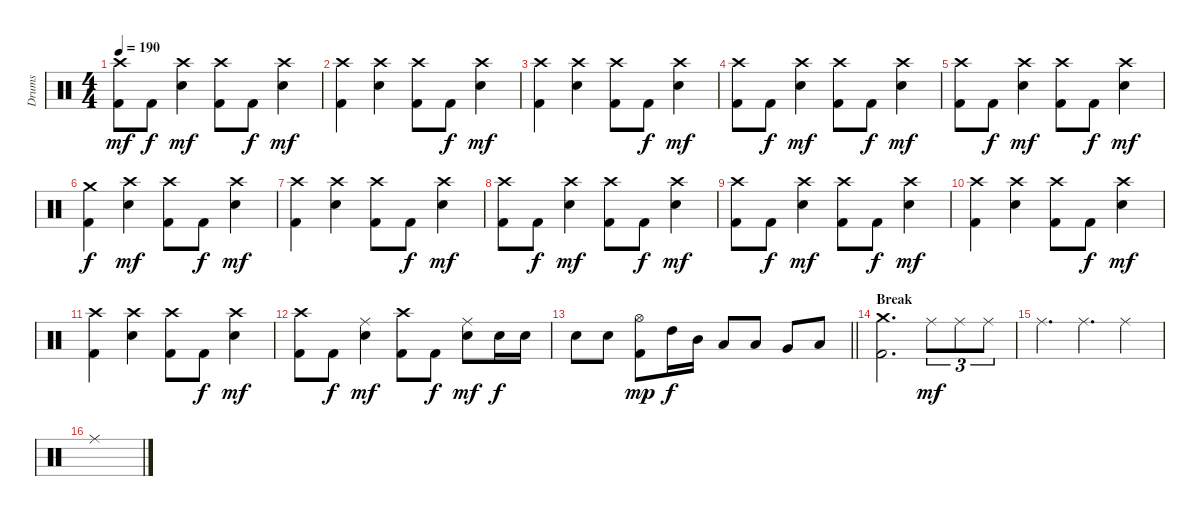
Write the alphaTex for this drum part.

\track ("Drums" "Drums") {instrument percussion}
\staff {score}
\articulation defaults
\ts (4 4)
\tempo 190
\clef neutral
\ks c
("Crash high (hit)" "Kick (hit) 2").8{dy mf} "Kick (hit) 2".8{dy f} ("Crash high (hit)" "Snare (hit) 2").4{dy mf} ("Crash high (hit)" "Kick (hit) 2").8 "Kick (hit) 2".8{dy f} ("Crash high (hit)" "Snare (hit) 2").4{dy mf} |
("Crash high (hit)" "Kick (hit) 2").4 ("Crash high (hit)" "Snare (hit) 2").4 ("Crash high (hit)" "Kick (hit) 2").8 "Kick (hit) 2".8{dy f} ("Crash high (hit)" "Snare (hit) 2").4{dy mf} |
("Crash high (hit)" "Kick (hit) 2").4 ("Crash high (hit)" "Snare (hit) 2").4 ("Crash high (hit)" "Kick (hit) 2").8 "Kick (hit) 2".8{dy f} ("Crash high (hit)" "Snare (hit) 2").4{dy mf} |
("Crash high (hit)" "Kick (hit) 2").8 "Kick (hit) 2".8{dy f} ("Crash high (hit)" "Snare (hit) 2").4{dy mf} ("Crash high (hit)" "Kick (hit) 2").8 "Kick (hit) 2".8{dy f} ("Crash high (hit)" "Snare (hit) 2").4{dy mf} |
("Crash high (hit)" "Kick (hit) 2").8 "Kick (hit) 2".8{dy f} ("Crash high (hit)" "Snare (hit) 2").4{dy mf} ("Crash high (hit)" "Kick (hit) 2").8 "Kick (hit) 2".8{dy f} ("Crash high (hit)" "Snare (hit) 2").4{dy mf} |
("Crash medium (hit)" "Kick (hit) 2").4{dy f} ("Crash high (hit)" "Snare (hit) 2").4{dy mf} ("Crash high (hit)" "Kick (hit) 2").8 "Kick (hit) 2".8{dy f} ("Crash high (hit)" "Snare (hit) 2").4{dy mf} |
("Crash high (hit)" "Kick (hit) 2").4 ("Crash high (hit)" "Snare (hit) 2").4 ("Crash high (hit)" "Kick (hit) 2").8 "Kick (hit) 2".8{dy f} ("Crash high (hit)" "Snare (hit) 2").4{dy mf} |
("Crash high (hit)" "Kick (hit) 2").8 "Kick (hit) 2".8{dy f} ("Crash high (hit)" "Snare (hit) 2").4{dy mf} ("Crash high (hit)" "Kick (hit) 2").8 "Kick (hit) 2".8{dy f} ("Crash high (hit)" "Snare (hit) 2").4{dy mf} |
("Crash high (hit)" "Kick (hit) 2").8 "Kick (hit) 2".8{dy f} ("Crash high (hit)" "Snare (hit) 2").4{dy mf} ("Crash high (hit)" "Kick (hit) 2").8 "Kick (hit) 2".8{dy f} ("Crash high (hit)" "Snare (hit) 2").4{dy mf} |
("Crash high (hit)" "Kick (hit) 2").4 ("Crash high (hit)" "Snare (hit) 2").4 ("Crash high (hit)" "Kick (hit) 2").8 "Kick (hit) 2".8{dy f} ("Crash high (hit)" "Snare (hit) 2").4{dy mf} |
("Crash high (hit)" "Kick (hit) 2").4 ("Crash high (hit)" "Snare (hit) 2").4 ("Crash high (hit)" "Kick (hit) 2").8 "Kick (hit) 2".8{dy f} ("Crash high (hit)" "Snare (hit) 2").4{dy mf} |
("Crash high (hit)" "Kick (hit) 2").8 "Kick (hit) 2".8{dy f} ("Ride (middle)" "Snare (hit) 2").4{dy mf} ("Crash high (hit)" "Kick (hit) 2").8 "Kick (hit) 2".8{dy f} ("Ride (middle)" "Snare (hit) 2").8{dy mf} "Snare (hit) 2".16{dy f} "Snare (hit) 2".16 |
\barLineRight lightlight "Snare (hit) 2".8 "Snare (hit) 2".8
("Hi-Hat (open)" "Kick (hit) 2").8{dy mp} "High Tom (hit)".16{dy f} "Mid Tom (hit)".16 "Low Tom (hit)".8 "Low Tom (hit)".8 "Very Low Tom (hit)".8 "Low Floor Tom (hit)".8 |
\section ("" "Break")
("Crash medium (hit)" "Kick (hit) 2").2{d} "Ride (middle)".8{tu (3 2) dy mf} "Ride (middle)".8{tu (3 2)} "Ride (middle)".8{tu (3 2)} |
"Ride (middle)".4{d} "Ride (middle)".4{d} "Ride (middle)".4 |
"Ride (middle)".1
